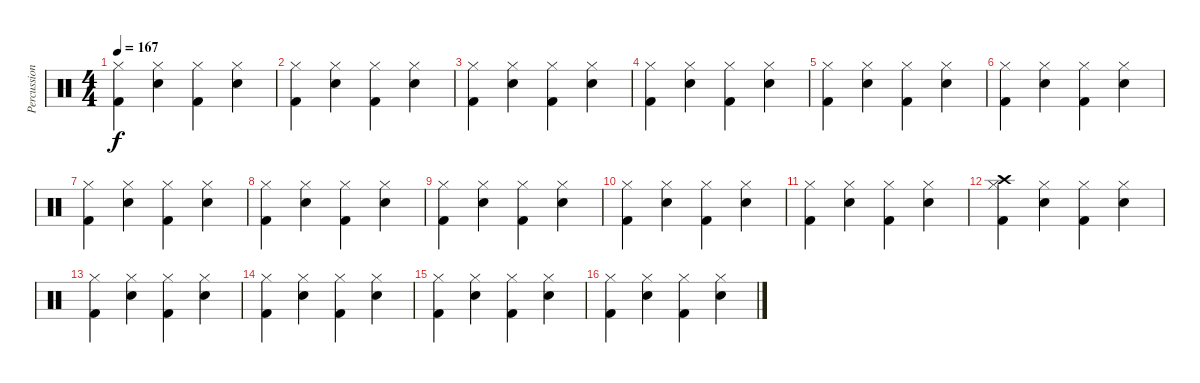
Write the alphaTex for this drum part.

\track ("Percussion" "Percussion") {instrument percussion}
\staff {score}
\articulation defaults
\ts (4 4)
\tempo 167
\clef neutral
\ks c
("Kick (hit) 2" "Hi-Hat (closed)").4{dy f} ("Hi-Hat (closed)" "Electric Snare (hit)").4 ("Kick (hit) 2" "Hi-Hat (closed)").4 ("Hi-Hat (closed)" "Electric Snare (hit)").4 |
("Kick (hit) 2" "Hi-Hat (closed)").4 ("Hi-Hat (closed)" "Electric Snare (hit)").4 ("Kick (hit) 2" "Hi-Hat (closed)").4 ("Hi-Hat (closed)" "Electric Snare (hit)").4 |
("Kick (hit) 2" "Hi-Hat (closed)").4 ("Hi-Hat (closed)" "Electric Snare (hit)").4 ("Kick (hit) 2" "Hi-Hat (closed)").4 ("Hi-Hat (closed)" "Electric Snare (hit)").4 |
("Kick (hit) 2" "Hi-Hat (closed)").4 ("Hi-Hat (closed)" "Electric Snare (hit)").4 ("Kick (hit) 2" "Hi-Hat (closed)").4 ("Hi-Hat (closed)" "Electric Snare (hit)").4 |
("Kick (hit) 2" "Hi-Hat (closed)").4 ("Hi-Hat (closed)" "Electric Snare (hit)").4 ("Kick (hit) 2" "Hi-Hat (closed)").4 ("Hi-Hat (closed)" "Electric Snare (hit)").4 |
("Kick (hit) 2" "Hi-Hat (closed)").4 ("Hi-Hat (closed)" "Electric Snare (hit)").4 ("Kick (hit) 2" "Hi-Hat (closed)").4 ("Hi-Hat (closed)" "Electric Snare (hit)").4 |
("Kick (hit) 2" "Hi-Hat (closed)").4 ("Hi-Hat (closed)" "Electric Snare (hit)").4 ("Kick (hit) 2" "Hi-Hat (closed)").4 ("Hi-Hat (closed)" "Electric Snare (hit)").4 |
("Kick (hit) 2" "Hi-Hat (closed)").4 ("Hi-Hat (closed)" "Electric Snare (hit)").4 ("Kick (hit) 2" "Hi-Hat (closed)").4 ("Hi-Hat (closed)" "Electric Snare (hit)").4 |
("Kick (hit) 2" "Hi-Hat (closed)").4 ("Hi-Hat (closed)" "Electric Snare (hit)").4 ("Kick (hit) 2" "Hi-Hat (closed)").4 ("Hi-Hat (closed)" "Electric Snare (hit)").4 |
("Kick (hit) 2" "Hi-Hat (closed)").4 ("Hi-Hat (closed)" "Electric Snare (hit)").4 ("Kick (hit) 2" "Hi-Hat (closed)").4 ("Hi-Hat (closed)" "Electric Snare (hit)").4 |
("Kick (hit) 2" "Hi-Hat (closed)").4 ("Hi-Hat (closed)" "Electric Snare (hit)").4 ("Kick (hit) 2" "Hi-Hat (closed)").4 ("Hi-Hat (closed)" "Electric Snare (hit)").4 |
("Kick (hit) 2" "Hi-Hat (closed)" "Crash high (hit)").4 ("Hi-Hat (closed)" "Electric Snare (hit)").4 ("Kick (hit) 2" "Hi-Hat (closed)").4 ("Hi-Hat (closed)" "Electric Snare (hit)").4 |
("Kick (hit) 2" "Hi-Hat (closed)").4 ("Hi-Hat (closed)" "Electric Snare (hit)").4 ("Kick (hit) 2" "Hi-Hat (closed)").4 ("Hi-Hat (closed)" "Electric Snare (hit)").4 |
("Kick (hit) 2" "Hi-Hat (closed)").4 ("Hi-Hat (closed)" "Electric Snare (hit)").4 ("Kick (hit) 2" "Hi-Hat (closed)").4 ("Hi-Hat (closed)" "Electric Snare (hit)").4 |
("Kick (hit) 2" "Hi-Hat (closed)").4 ("Hi-Hat (closed)" "Electric Snare (hit)").4 ("Kick (hit) 2" "Hi-Hat (closed)").4 ("Hi-Hat (closed)" "Electric Snare (hit)").4 |
("Kick (hit) 2" "Hi-Hat (closed)").4 ("Hi-Hat (closed)" "Electric Snare (hit)").4 ("Kick (hit) 2" "Hi-Hat (closed)").4 ("Hi-Hat (closed)" "Electric Snare (hit)").4
